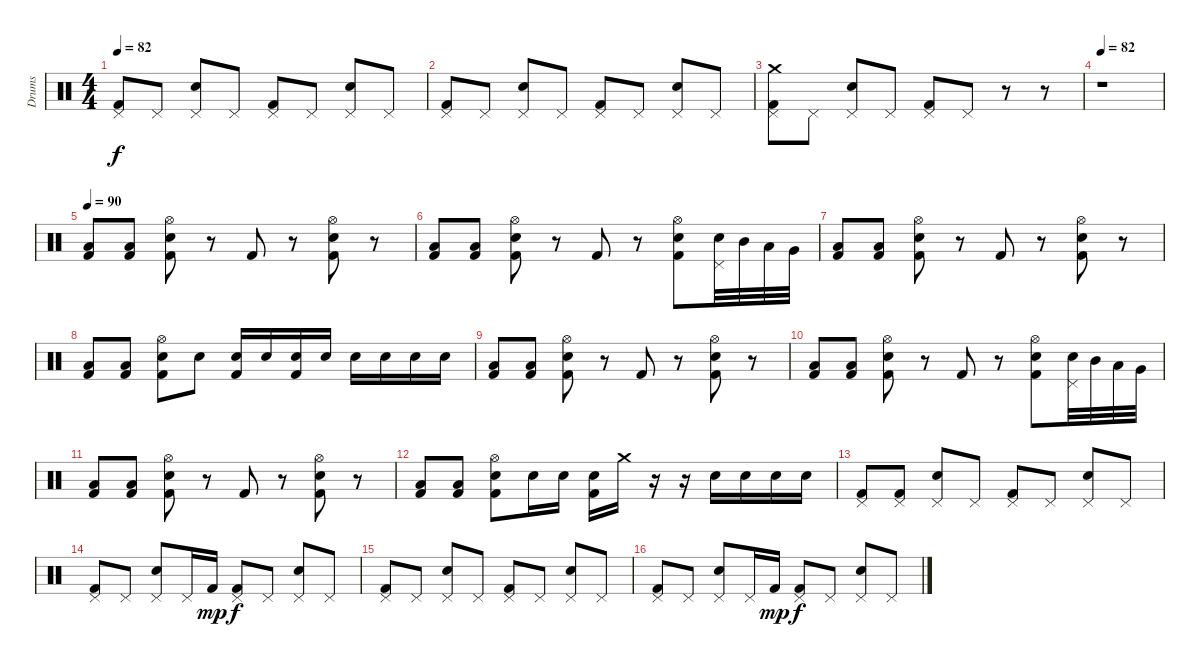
\track ("Drums" "Drums") {instrument percussion}
\staff {score}
\articulation defaults
\ts (4 4)
\tempo 82
\clef neutral
\ks c
("Kick (hit) 2" "Pedal Hi-Hat (hit)").8{dy f} "Pedal Hi-Hat (hit)".8 ("Electric Snare (hit)" "Pedal Hi-Hat (hit)").8 "Pedal Hi-Hat (hit)".8 ("Kick (hit) 2" "Pedal Hi-Hat (hit)").8 "Pedal Hi-Hat (hit)".8 ("Electric Snare (hit)" "Pedal Hi-Hat (hit)").8 "Pedal Hi-Hat (hit)".8 |
("Kick (hit) 2" "Pedal Hi-Hat (hit)").8 "Pedal Hi-Hat (hit)".8 ("Electric Snare (hit)" "Pedal Hi-Hat (hit)").8 "Pedal Hi-Hat (hit)".8 ("Kick (hit) 2" "Pedal Hi-Hat (hit)").8 "Pedal Hi-Hat (hit)".8 ("Electric Snare (hit)" "Pedal Hi-Hat (hit)").8 "Pedal Hi-Hat (hit)".8 |
("Kick (hit) 2" "Pedal Hi-Hat (hit)" "Crash medium (hit)").8 "Pedal Hi-Hat (hit)".8 ("Electric Snare (hit)" "Pedal Hi-Hat (hit)").8 "Pedal Hi-Hat (hit)".8 ("Kick (hit) 2" "Pedal Hi-Hat (hit)").8 "Pedal Hi-Hat (hit)".8 r.8 r.8 |
\tempo 82
r.1 |
\tempo 90
("Low Tom (hit)" "Kick (hit) 2").8 ("Low Tom (hit)" "Kick (hit) 2").8 ("Hi-Hat (open)" "Electric Snare (hit)" "Kick (hit) 2").8 r.8 "Kick (hit) 2".8 r.8 ("Hi-Hat (open)" "Electric Snare (hit)" "Kick (hit) 2").8 r.8 |
("Low Tom (hit)" "Kick (hit) 2").8 ("Low Tom (hit)" "Kick (hit) 2").8 ("Hi-Hat (open)" "Electric Snare (hit)" "Kick (hit) 2").8 r.8 "Kick (hit) 2".8 r.8 ("Hi-Hat (open)" "Electric Snare (hit)" "Kick (hit) 2").8 ("Pedal Hi-Hat (hit)" "Electric Snare (hit)").32 "Mid Tom (hit)".32 "Low Tom (hit)".32 "Very Low Tom (hit)".32 |
("Low Tom (hit)" "Kick (hit) 2").8 ("Low Tom (hit)" "Kick (hit) 2").8 ("Hi-Hat (open)" "Electric Snare (hit)" "Kick (hit) 2").8 r.8 "Kick (hit) 2".8 r.8 ("Hi-Hat (open)" "Electric Snare (hit)" "Kick (hit) 2").8 r.8 |
("Low Tom (hit)" "Kick (hit) 2").8 ("Low Tom (hit)" "Kick (hit) 2").8 ("Hi-Hat (open)" "Electric Snare (hit)" "Kick (hit) 2").8 "Snare (hit) 2".8 ("Snare (hit) 2" "Kick (hit) 2").16 "Snare (hit) 2".16 ("Snare (hit) 2" "Kick (hit) 2").16 "Snare (hit) 2".16 "Snare (hit) 2".16 "Snare (hit) 2".16 "Snare (hit) 2".16 "Snare (hit) 2".16 |
("Low Tom (hit)" "Kick (hit) 2").8 ("Low Tom (hit)" "Kick (hit) 2").8 ("Hi-Hat (open)" "Electric Snare (hit)" "Kick (hit) 2").8 r.8 "Kick (hit) 2".8 r.8 ("Hi-Hat (open)" "Electric Snare (hit)" "Kick (hit) 2").8 r.8 |
("Low Tom (hit)" "Kick (hit) 2").8 ("Low Tom (hit)" "Kick (hit) 2").8 ("Hi-Hat (open)" "Electric Snare (hit)" "Kick (hit) 2").8 r.8 "Kick (hit) 2".8 r.8 ("Hi-Hat (open)" "Electric Snare (hit)" "Kick (hit) 2").8 ("Pedal Hi-Hat (hit)" "Electric Snare (hit)").32 "Mid Tom (hit)".32 "Low Tom (hit)".32 "Very Low Tom (hit)".32 |
("Low Tom (hit)" "Kick (hit) 2").8 ("Low Tom (hit)" "Kick (hit) 2").8 ("Hi-Hat (open)" "Electric Snare (hit)" "Kick (hit) 2").8 r.8 "Kick (hit) 2".8 r.8 ("Hi-Hat (open)" "Electric Snare (hit)" "Kick (hit) 2").8 r.8 |
("Low Tom (hit)" "Kick (hit) 2").8 ("Low Tom (hit)" "Kick (hit) 2").8 ("Hi-Hat (open)" "Electric Snare (hit)" "Kick (hit) 2").8 "Snare (hit) 2".16 "Snare (hit) 2".16 ("Snare (hit) 2" "Kick (hit) 2").16 "Crash medium (hit)".16 r.16 r.16 "Snare (hit) 2".16 "Snare (hit) 2".16 "Snare (hit) 2".16 "Snare (hit) 2".16 |
("Pedal Hi-Hat (hit)" "Kick (hit) 2").8 ("Pedal Hi-Hat (hit)" "Kick (hit) 2").8 ("Pedal Hi-Hat (hit)" "Electric Snare (hit)").8 "Pedal Hi-Hat (hit)".8 ("Kick (hit) 2" "Pedal Hi-Hat (hit)").8 "Pedal Hi-Hat (hit)".8 ("Electric Snare (hit)" "Pedal Hi-Hat (hit)").8 "Pedal Hi-Hat (hit)".8 |
("Pedal Hi-Hat (hit)" "Kick (hit) 2").8 "Pedal Hi-Hat (hit)".8 ("Pedal Hi-Hat (hit)" "Electric Snare (hit)").8 "Pedal Hi-Hat (hit)".16 "Kick (hit) 2".16{dy mp} ("Kick (hit) 2" "Pedal Hi-Hat (hit)").8{dy f} "Pedal Hi-Hat (hit)".8 ("Electric Snare (hit)" "Pedal Hi-Hat (hit)").8 "Pedal Hi-Hat (hit)".8 |
("Pedal Hi-Hat (hit)" "Kick (hit) 2").8 "Pedal Hi-Hat (hit)".8 ("Pedal Hi-Hat (hit)" "Electric Snare (hit)").8 "Pedal Hi-Hat (hit)".8 ("Kick (hit) 2" "Pedal Hi-Hat (hit)").8 "Pedal Hi-Hat (hit)".8 ("Electric Snare (hit)" "Pedal Hi-Hat (hit)").8 "Pedal Hi-Hat (hit)".8 |
("Pedal Hi-Hat (hit)" "Kick (hit) 2").8 "Pedal Hi-Hat (hit)".8 ("Pedal Hi-Hat (hit)" "Electric Snare (hit)").8 "Pedal Hi-Hat (hit)".16 "Kick (hit) 2".16{dy mp} ("Kick (hit) 2" "Pedal Hi-Hat (hit)").8{dy f} "Pedal Hi-Hat (hit)".8 ("Electric Snare (hit)" "Pedal Hi-Hat (hit)").8 "Pedal Hi-Hat (hit)".8
